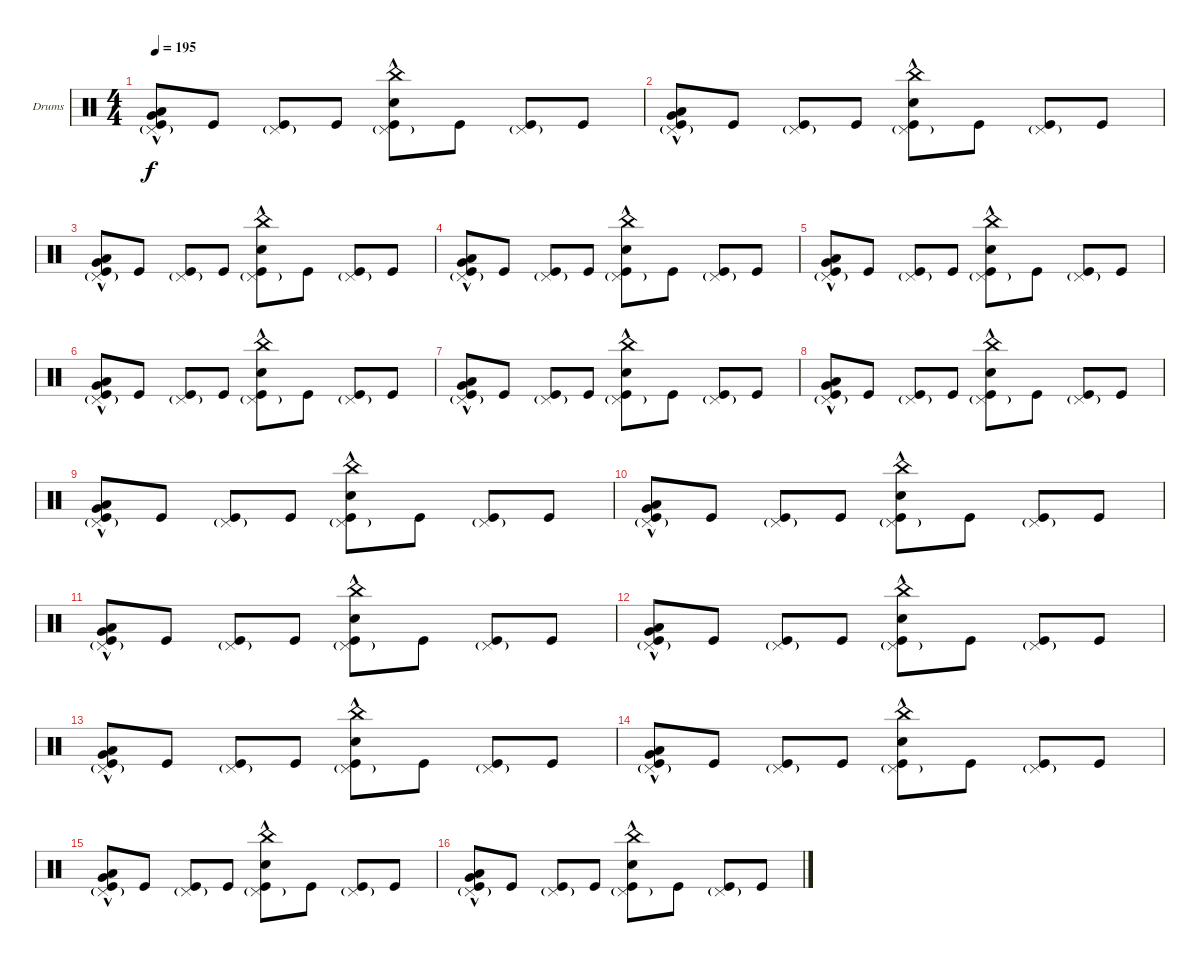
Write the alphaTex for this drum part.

\defaultSystemsLayout 4
\bracketExtendMode groupsimilarinstruments
\firstSystemTrackNameOrientation horizontal
\otherSystemsTrackNameOrientation horizontal
\track ("Drumkit" "Drums") {instrument percussion}
\staff {score}
\articulation defaults
\ts (4 4)
\tempo 195
\clef neutral
\ks c
("Kick (hit)" "Very Low Tom (hit)"{hac} "Low Tom (hit)"{hac} "Pedal Hi-Hat (hit)"{g}).8{dy f} "Kick (hit)".8 ("Kick (hit)" "Pedal Hi-Hat (hit)"{g}).8 "Kick (hit)".8 ("Kick (hit)" "Snare (hit) 2"{hac} "China (hit)"{hac} "Pedal Hi-Hat (hit)"{g}).8 "Kick (hit)".8 ("Kick (hit)" "Pedal Hi-Hat (hit)"{g}).8 "Kick (hit)".8 |
("Kick (hit)" "Pedal Hi-Hat (hit)"{g} "Very Low Tom (hit)"{hac} "Low Tom (hit)"{hac}).8 "Kick (hit)".8 ("Kick (hit)" "Pedal Hi-Hat (hit)"{g}).8 "Kick (hit)".8 ("Kick (hit)" "Pedal Hi-Hat (hit)"{g} "Snare (hit) 2"{hac} "China (hit)"{hac}).8 "Kick (hit)".8 ("Kick (hit)" "Pedal Hi-Hat (hit)"{g}).8 "Kick (hit)".8 |
("Kick (hit)" "Very Low Tom (hit)"{hac} "Low Tom (hit)"{hac} "Pedal Hi-Hat (hit)"{g}).8 "Kick (hit)".8 ("Kick (hit)" "Pedal Hi-Hat (hit)"{g}).8 "Kick (hit)".8 ("Kick (hit)" "Snare (hit) 2"{hac} "China (hit)"{hac} "Pedal Hi-Hat (hit)"{g}).8 "Kick (hit)".8 ("Kick (hit)" "Pedal Hi-Hat (hit)"{g}).8 "Kick (hit)".8 |
("Kick (hit)" "Pedal Hi-Hat (hit)"{g} "Very Low Tom (hit)"{hac} "Low Tom (hit)"{hac}).8 "Kick (hit)".8 ("Kick (hit)" "Pedal Hi-Hat (hit)"{g}).8 "Kick (hit)".8 ("Kick (hit)" "Pedal Hi-Hat (hit)"{g} "Snare (hit) 2"{hac} "China (hit)"{hac}).8 "Kick (hit)".8 ("Kick (hit)" "Pedal Hi-Hat (hit)"{g}).8 "Kick (hit)".8 |
("Kick (hit)" "Very Low Tom (hit)"{hac} "Low Tom (hit)"{hac} "Pedal Hi-Hat (hit)"{g}).8 "Kick (hit)".8 ("Kick (hit)" "Pedal Hi-Hat (hit)"{g}).8 "Kick (hit)".8 ("Kick (hit)" "Snare (hit) 2"{hac} "China (hit)"{hac} "Pedal Hi-Hat (hit)"{g}).8 "Kick (hit)".8 ("Kick (hit)" "Pedal Hi-Hat (hit)"{g}).8 "Kick (hit)".8 |
("Kick (hit)" "Pedal Hi-Hat (hit)"{g} "Very Low Tom (hit)"{hac} "Low Tom (hit)"{hac}).8 "Kick (hit)".8 ("Kick (hit)" "Pedal Hi-Hat (hit)"{g}).8 "Kick (hit)".8 ("Kick (hit)" "Pedal Hi-Hat (hit)"{g} "Snare (hit) 2"{hac} "China (hit)"{hac}).8 "Kick (hit)".8 ("Kick (hit)" "Pedal Hi-Hat (hit)"{g}).8 "Kick (hit)".8 |
("Kick (hit)" "Very Low Tom (hit)"{hac} "Low Tom (hit)"{hac} "Pedal Hi-Hat (hit)"{g}).8 "Kick (hit)".8 ("Kick (hit)" "Pedal Hi-Hat (hit)"{g}).8 "Kick (hit)".8 ("Kick (hit)" "Snare (hit) 2"{hac} "China (hit)"{hac} "Pedal Hi-Hat (hit)"{g}).8 "Kick (hit)".8 ("Kick (hit)" "Pedal Hi-Hat (hit)"{g}).8 "Kick (hit)".8 |
("Kick (hit)" "Pedal Hi-Hat (hit)"{g} "Very Low Tom (hit)"{hac} "Low Tom (hit)"{hac}).8 "Kick (hit)".8 ("Kick (hit)" "Pedal Hi-Hat (hit)"{g}).8 "Kick (hit)".8 ("Kick (hit)" "Pedal Hi-Hat (hit)"{g} "Snare (hit) 2"{hac} "China (hit)"{hac}).8 "Kick (hit)".8 ("Kick (hit)" "Pedal Hi-Hat (hit)"{g}).8 "Kick (hit)".8 |
("Kick (hit)" "Very Low Tom (hit)"{hac} "Low Tom (hit)"{hac} "Pedal Hi-Hat (hit)"{g}).8 "Kick (hit)".8 ("Kick (hit)" "Pedal Hi-Hat (hit)"{g}).8 "Kick (hit)".8 ("Kick (hit)" "Snare (hit) 2"{hac} "China (hit)"{hac} "Pedal Hi-Hat (hit)"{g}).8 "Kick (hit)".8 ("Kick (hit)" "Pedal Hi-Hat (hit)"{g}).8 "Kick (hit)".8 |
("Kick (hit)" "Pedal Hi-Hat (hit)"{g} "Very Low Tom (hit)"{hac} "Low Tom (hit)"{hac}).8 "Kick (hit)".8 ("Kick (hit)" "Pedal Hi-Hat (hit)"{g}).8 "Kick (hit)".8 ("Kick (hit)" "Pedal Hi-Hat (hit)"{g} "Snare (hit) 2"{hac} "China (hit)"{hac}).8 "Kick (hit)".8 ("Kick (hit)" "Pedal Hi-Hat (hit)"{g}).8 "Kick (hit)".8 |
("Kick (hit)" "Very Low Tom (hit)"{hac} "Low Tom (hit)"{hac} "Pedal Hi-Hat (hit)"{g}).8 "Kick (hit)".8 ("Kick (hit)" "Pedal Hi-Hat (hit)"{g}).8 "Kick (hit)".8 ("Kick (hit)" "Snare (hit) 2"{hac} "China (hit)"{hac} "Pedal Hi-Hat (hit)"{g}).8 "Kick (hit)".8 ("Kick (hit)" "Pedal Hi-Hat (hit)"{g}).8 "Kick (hit)".8 |
("Kick (hit)" "Pedal Hi-Hat (hit)"{g} "Very Low Tom (hit)"{hac} "Low Tom (hit)"{hac}).8 "Kick (hit)".8 ("Kick (hit)" "Pedal Hi-Hat (hit)"{g}).8 "Kick (hit)".8 ("Kick (hit)" "Pedal Hi-Hat (hit)"{g} "Snare (hit) 2"{hac} "China (hit)"{hac}).8 "Kick (hit)".8 ("Kick (hit)" "Pedal Hi-Hat (hit)"{g}).8 "Kick (hit)".8 |
("Kick (hit)" "Very Low Tom (hit)"{hac} "Low Tom (hit)"{hac} "Pedal Hi-Hat (hit)"{g}).8 "Kick (hit)".8 ("Kick (hit)" "Pedal Hi-Hat (hit)"{g}).8 "Kick (hit)".8 ("Kick (hit)" "Snare (hit) 2"{hac} "China (hit)"{hac} "Pedal Hi-Hat (hit)"{g}).8 "Kick (hit)".8 ("Kick (hit)" "Pedal Hi-Hat (hit)"{g}).8 "Kick (hit)".8 |
("Kick (hit)" "Pedal Hi-Hat (hit)"{g} "Very Low Tom (hit)"{hac} "Low Tom (hit)"{hac}).8 "Kick (hit)".8 ("Kick (hit)" "Pedal Hi-Hat (hit)"{g}).8 "Kick (hit)".8 ("Kick (hit)" "Pedal Hi-Hat (hit)"{g} "Snare (hit) 2"{hac} "China (hit)"{hac}).8 "Kick (hit)".8 ("Kick (hit)" "Pedal Hi-Hat (hit)"{g}).8 "Kick (hit)".8 |
("Kick (hit)" "Very Low Tom (hit)"{hac} "Low Tom (hit)"{hac} "Pedal Hi-Hat (hit)"{g}).8 "Kick (hit)".8 ("Kick (hit)" "Pedal Hi-Hat (hit)"{g}).8 "Kick (hit)".8 ("Kick (hit)" "Snare (hit) 2"{hac} "China (hit)"{hac} "Pedal Hi-Hat (hit)"{g}).8 "Kick (hit)".8 ("Kick (hit)" "Pedal Hi-Hat (hit)"{g}).8 "Kick (hit)".8 |
("Kick (hit)" "Pedal Hi-Hat (hit)"{g} "Very Low Tom (hit)"{hac} "Low Tom (hit)"{hac}).8 "Kick (hit)".8 ("Kick (hit)" "Pedal Hi-Hat (hit)"{g}).8 "Kick (hit)".8 ("Kick (hit)" "Pedal Hi-Hat (hit)"{g} "Snare (hit) 2"{hac} "China (hit)"{hac}).8 "Kick (hit)".8 ("Kick (hit)" "Pedal Hi-Hat (hit)"{g}).8 "Kick (hit)".8
